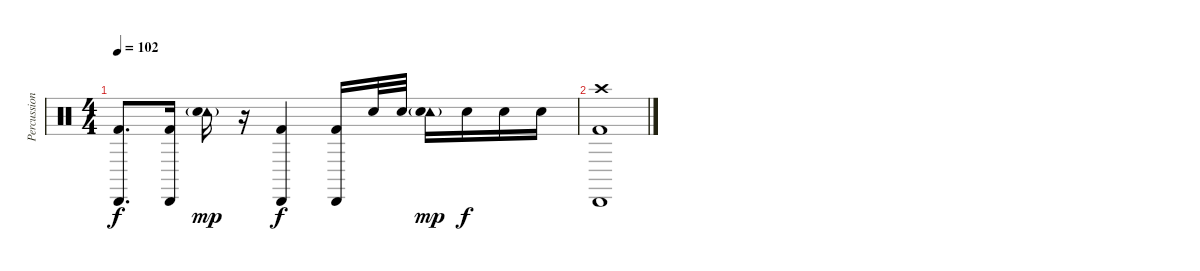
\track ("Percussion" "Percussion") {instrument percussion}
\staff {score}
\articulation defaults
\ts (4 4)
\tempo 102
\clef neutral
\ks c
("Cabasa (hit)" "Kick (hit) 2").8{d dy f} ("Cabasa (hit)" "Kick (hit) 2").16 ("Tambourine (hit)"{g} "Electric Snare (hit)").16{dy mp} r.16 ("Cabasa (hit)" "Kick (hit) 2").4{dy f} ("Cabasa (hit)" "Kick (hit) 2").16 "Electric Snare (hit)".32 "Electric Snare (hit)".32 ("Tambourine (hit)"{g} "Electric Snare (hit)").16{dy mp} "Electric Snare (hit)".16{dy f} "Electric Snare (hit)".16 "Electric Snare (hit)".16 |
("Crash high (hit)" "Cabasa (hit)" "Kick (hit) 2").1
